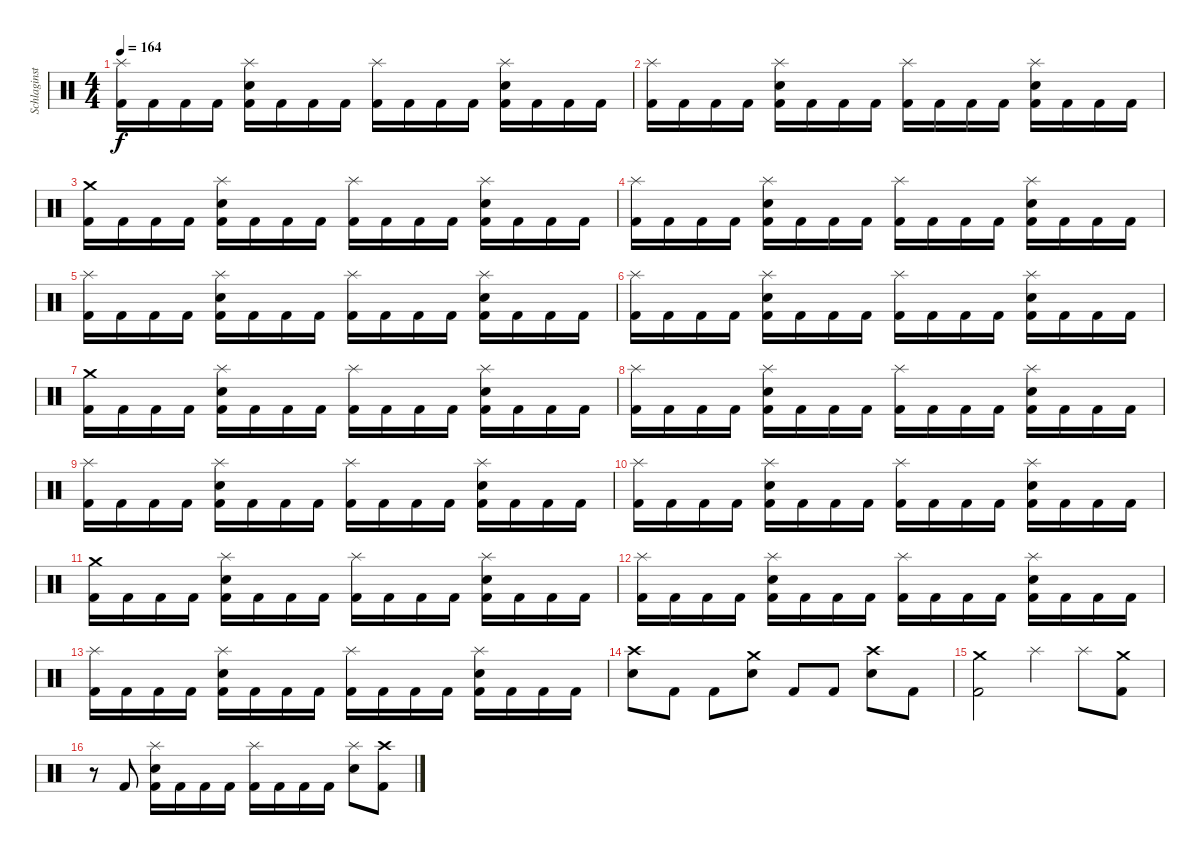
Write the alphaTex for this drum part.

\track ("Schlaginstrumente - Auswahl" "Schlaginst") {instrument percussion}
\staff {score}
\articulation defaults
\ts (4 4)
\tempo 164
\clef neutral
\ks c
("Splash (hit)" "Kick (hit) 2").16{dy f} "Kick (hit) 2".16 "Kick (hit) 2".16 "Kick (hit) 2".16 ("Splash (hit)" "Electric Snare (hit)" "Kick (hit) 2").16 "Kick (hit) 2".16 "Kick (hit) 2".16 "Kick (hit) 2".16 ("Splash (hit)" "Kick (hit) 2").16 "Kick (hit) 2".16 "Kick (hit) 2".16 "Kick (hit) 2".16 ("Splash (hit)" "Electric Snare (hit)" "Kick (hit) 2").16 "Kick (hit) 2".16 "Kick (hit) 2".16 "Kick (hit) 2".16 |
("Splash (hit)" "Kick (hit) 2").16 "Kick (hit) 2".16 "Kick (hit) 2".16 "Kick (hit) 2".16 ("Splash (hit)" "Electric Snare (hit)" "Kick (hit) 2").16 "Kick (hit) 2".16 "Kick (hit) 2".16 "Kick (hit) 2".16 ("Splash (hit)" "Kick (hit) 2").16 "Kick (hit) 2".16 "Kick (hit) 2".16 "Kick (hit) 2".16 ("Splash (hit)" "Electric Snare (hit)" "Kick (hit) 2").16 "Kick (hit) 2".16 "Kick (hit) 2".16 "Kick (hit) 2".16 |
("Crash medium (hit)" "Kick (hit) 2").16 "Kick (hit) 2".16 "Kick (hit) 2".16 "Kick (hit) 2".16 ("Splash (hit)" "Electric Snare (hit)" "Kick (hit) 2").16 "Kick (hit) 2".16 "Kick (hit) 2".16 "Kick (hit) 2".16 ("Splash (hit)" "Kick (hit) 2").16 "Kick (hit) 2".16 "Kick (hit) 2".16 "Kick (hit) 2".16 ("Splash (hit)" "Electric Snare (hit)" "Kick (hit) 2").16 "Kick (hit) 2".16 "Kick (hit) 2".16 "Kick (hit) 2".16 |
("Splash (hit)" "Kick (hit) 2").16 "Kick (hit) 2".16 "Kick (hit) 2".16 "Kick (hit) 2".16 ("Splash (hit)" "Electric Snare (hit)" "Kick (hit) 2").16 "Kick (hit) 2".16 "Kick (hit) 2".16 "Kick (hit) 2".16 ("Splash (hit)" "Kick (hit) 2").16 "Kick (hit) 2".16 "Kick (hit) 2".16 "Kick (hit) 2".16 ("Splash (hit)" "Electric Snare (hit)" "Kick (hit) 2").16 "Kick (hit) 2".16 "Kick (hit) 2".16 "Kick (hit) 2".16 |
("Splash (hit)" "Kick (hit) 2").16 "Kick (hit) 2".16 "Kick (hit) 2".16 "Kick (hit) 2".16 ("Splash (hit)" "Electric Snare (hit)" "Kick (hit) 2").16 "Kick (hit) 2".16 "Kick (hit) 2".16 "Kick (hit) 2".16 ("Splash (hit)" "Kick (hit) 2").16 "Kick (hit) 2".16 "Kick (hit) 2".16 "Kick (hit) 2".16 ("Splash (hit)" "Electric Snare (hit)" "Kick (hit) 2").16 "Kick (hit) 2".16 "Kick (hit) 2".16 "Kick (hit) 2".16 |
("Splash (hit)" "Kick (hit) 2").16 "Kick (hit) 2".16 "Kick (hit) 2".16 "Kick (hit) 2".16 ("Splash (hit)" "Electric Snare (hit)" "Kick (hit) 2").16 "Kick (hit) 2".16 "Kick (hit) 2".16 "Kick (hit) 2".16 ("Splash (hit)" "Kick (hit) 2").16 "Kick (hit) 2".16 "Kick (hit) 2".16 "Kick (hit) 2".16 ("Splash (hit)" "Electric Snare (hit)" "Kick (hit) 2").16 "Kick (hit) 2".16 "Kick (hit) 2".16 "Kick (hit) 2".16 |
("Crash medium (hit)" "Kick (hit) 2").16 "Kick (hit) 2".16 "Kick (hit) 2".16 "Kick (hit) 2".16 ("Splash (hit)" "Electric Snare (hit)" "Kick (hit) 2").16 "Kick (hit) 2".16 "Kick (hit) 2".16 "Kick (hit) 2".16 ("Splash (hit)" "Kick (hit) 2").16 "Kick (hit) 2".16 "Kick (hit) 2".16 "Kick (hit) 2".16 ("Splash (hit)" "Electric Snare (hit)" "Kick (hit) 2").16 "Kick (hit) 2".16 "Kick (hit) 2".16 "Kick (hit) 2".16 |
("Splash (hit)" "Kick (hit) 2").16 "Kick (hit) 2".16 "Kick (hit) 2".16 "Kick (hit) 2".16 ("Splash (hit)" "Electric Snare (hit)" "Kick (hit) 2").16 "Kick (hit) 2".16 "Kick (hit) 2".16 "Kick (hit) 2".16 ("Splash (hit)" "Kick (hit) 2").16 "Kick (hit) 2".16 "Kick (hit) 2".16 "Kick (hit) 2".16 ("Splash (hit)" "Electric Snare (hit)" "Kick (hit) 2").16 "Kick (hit) 2".16 "Kick (hit) 2".16 "Kick (hit) 2".16 |
("Splash (hit)" "Kick (hit) 2").16 "Kick (hit) 2".16 "Kick (hit) 2".16 "Kick (hit) 2".16 ("Splash (hit)" "Electric Snare (hit)" "Kick (hit) 2").16 "Kick (hit) 2".16 "Kick (hit) 2".16 "Kick (hit) 2".16 ("Splash (hit)" "Kick (hit) 2").16 "Kick (hit) 2".16 "Kick (hit) 2".16 "Kick (hit) 2".16 ("Splash (hit)" "Electric Snare (hit)" "Kick (hit) 2").16 "Kick (hit) 2".16 "Kick (hit) 2".16 "Kick (hit) 2".16 |
("Splash (hit)" "Kick (hit) 2").16 "Kick (hit) 2".16 "Kick (hit) 2".16 "Kick (hit) 2".16 ("Splash (hit)" "Electric Snare (hit)" "Kick (hit) 2").16 "Kick (hit) 2".16 "Kick (hit) 2".16 "Kick (hit) 2".16 ("Splash (hit)" "Kick (hit) 2").16 "Kick (hit) 2".16 "Kick (hit) 2".16 "Kick (hit) 2".16 ("Splash (hit)" "Electric Snare (hit)" "Kick (hit) 2").16 "Kick (hit) 2".16 "Kick (hit) 2".16 "Kick (hit) 2".16 |
("Crash medium (hit)" "Kick (hit) 2").16 "Kick (hit) 2".16 "Kick (hit) 2".16 "Kick (hit) 2".16 ("Splash (hit)" "Electric Snare (hit)" "Kick (hit) 2").16 "Kick (hit) 2".16 "Kick (hit) 2".16 "Kick (hit) 2".16 ("Splash (hit)" "Kick (hit) 2").16 "Kick (hit) 2".16 "Kick (hit) 2".16 "Kick (hit) 2".16 ("Splash (hit)" "Electric Snare (hit)" "Kick (hit) 2").16 "Kick (hit) 2".16 "Kick (hit) 2".16 "Kick (hit) 2".16 |
("Splash (hit)" "Kick (hit) 2").16 "Kick (hit) 2".16 "Kick (hit) 2".16 "Kick (hit) 2".16 ("Splash (hit)" "Electric Snare (hit)" "Kick (hit) 2").16 "Kick (hit) 2".16 "Kick (hit) 2".16 "Kick (hit) 2".16 ("Splash (hit)" "Kick (hit) 2").16 "Kick (hit) 2".16 "Kick (hit) 2".16 "Kick (hit) 2".16 ("Splash (hit)" "Electric Snare (hit)" "Kick (hit) 2").16 "Kick (hit) 2".16 "Kick (hit) 2".16 "Kick (hit) 2".16 |
("Splash (hit)" "Kick (hit) 2").16 "Kick (hit) 2".16 "Kick (hit) 2".16 "Kick (hit) 2".16 ("Splash (hit)" "Electric Snare (hit)" "Kick (hit) 2").16 "Kick (hit) 2".16 "Kick (hit) 2".16 "Kick (hit) 2".16 ("Splash (hit)" "Kick (hit) 2").16 "Kick (hit) 2".16 "Kick (hit) 2".16 "Kick (hit) 2".16 ("Splash (hit)" "Electric Snare (hit)" "Kick (hit) 2").16 "Kick (hit) 2".16 "Kick (hit) 2".16 "Kick (hit) 2".16 |
("Crash high (hit)" "Electric Snare (hit)").8 "Kick (hit) 2".8 "Kick (hit) 2".8 ("Crash medium (hit)" "Electric Snare (hit)").8 "Kick (hit) 2".8 "Kick (hit) 2".8 ("Crash high (hit)" "Electric Snare (hit)").8 "Kick (hit) 2".8 |
("Crash medium (hit)" "Kick (hit) 2").2 "Splash (hit)".4 "Splash (hit)".8 ("Crash medium (hit)" "Kick (hit) 2").8 |
r.8 "Kick (hit) 2".8 ("Splash (hit)" "Electric Snare (hit)" "Kick (hit) 2").16 "Kick (hit) 2".16 "Kick (hit) 2".16 "Kick (hit) 2".16 ("Splash (hit)" "Kick (hit) 2").16 "Kick (hit) 2".16 "Kick (hit) 2".16 "Kick (hit) 2".16 ("Splash (hit)" "Electric Snare (hit)").8 ("Crash high (hit)" "Kick (hit) 2").8
